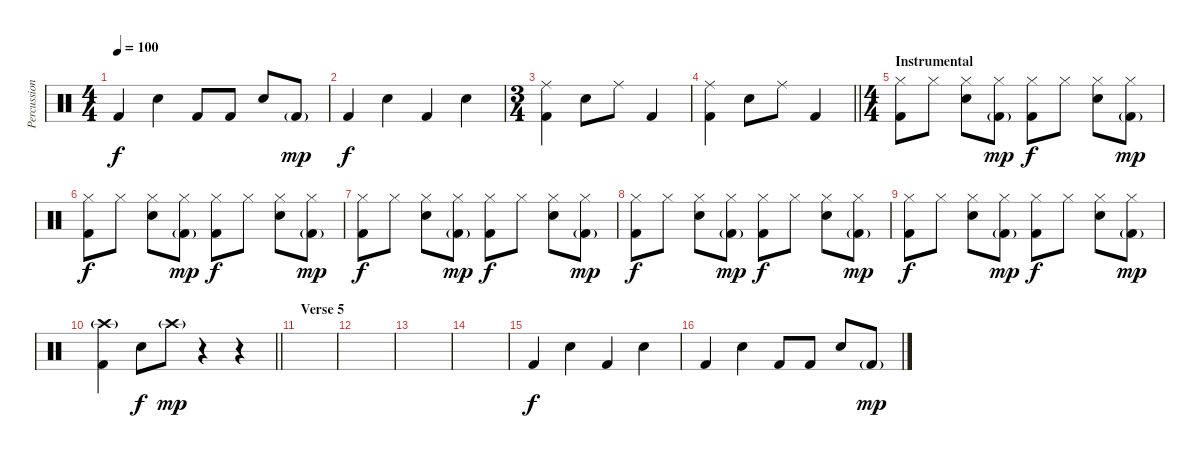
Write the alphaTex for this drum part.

\track ("Percussion" "Percussion") {instrument percussion}
\staff {score}
\articulation defaults
\ts (4 4)
\tempo 100
\clef neutral
\ks c "Kick (hit) 2".4{dy f} "Snare (hit) 2".4 "Kick (hit) 2".8 "Kick (hit) 2".8 "Snare (hit) 2".8 "Kick (hit) 2"{g}.8{dy mp}
|
"Kick (hit) 2".4{dy f} "Snare (hit) 2".4 "Kick (hit) 2".4 "Snare (hit) 2".4 |
\ts (3 4)
("Ride (middle)" "Kick (hit) 2").4 "Snare (hit) 2".8 "Ride (middle)".8 "Kick (hit) 2".4 |
\barLineRight lightlight
("Ride (middle)" "Kick (hit) 2").4 "Snare (hit) 2".8 "Ride (middle)".8 "Kick (hit) 2".4 |
\ts (4 4)
\section ("" "Instrumental")
("Hi-Hat (closed)" "Kick (hit) 2").8 "Hi-Hat (closed)".8 ("Hi-Hat (closed)" "Snare (hit) 2").8 ("Hi-Hat (closed)" "Kick (hit) 2"{g}).8{dy mp} ("Hi-Hat (closed)" "Kick (hit) 2").8{dy f} "Hi-Hat (closed)".8 ("Hi-Hat (closed)" "Snare (hit) 2").8 ("Hi-Hat (closed)" "Kick (hit) 2"{g}).8{dy mp} |
("Hi-Hat (closed)" "Kick (hit) 2").8{dy f} "Hi-Hat (closed)".8 ("Hi-Hat (closed)" "Snare (hit) 2").8 ("Hi-Hat (closed)" "Kick (hit) 2"{g}).8{dy mp} ("Hi-Hat (closed)" "Kick (hit) 2").8{dy f} "Hi-Hat (closed)".8 ("Hi-Hat (closed)" "Snare (hit) 2").8 ("Hi-Hat (closed)" "Kick (hit) 2"{g}).8{dy mp} |
("Hi-Hat (closed)" "Kick (hit) 2").8{dy f} "Hi-Hat (closed)".8 ("Hi-Hat (closed)" "Snare (hit) 2").8 ("Hi-Hat (closed)" "Kick (hit) 2"{g}).8{dy mp} ("Hi-Hat (closed)" "Kick (hit) 2").8{dy f} "Hi-Hat (closed)".8 ("Hi-Hat (closed)" "Snare (hit) 2").8 ("Hi-Hat (closed)" "Kick (hit) 2"{g}).8{dy mp} |
("Hi-Hat (closed)" "Kick (hit) 2").8{dy f} "Hi-Hat (closed)".8 ("Hi-Hat (closed)" "Snare (hit) 2").8 ("Hi-Hat (closed)" "Kick (hit) 2"{g}).8{dy mp} ("Hi-Hat (closed)" "Kick (hit) 2").8{dy f} "Hi-Hat (closed)".8 ("Hi-Hat (closed)" "Snare (hit) 2").8 ("Hi-Hat (closed)" "Kick (hit) 2"{g}).8{dy mp} |
("Hi-Hat (closed)" "Kick (hit) 2").8{dy f} "Hi-Hat (closed)".8 ("Hi-Hat (closed)" "Snare (hit) 2").8 ("Hi-Hat (closed)" "Kick (hit) 2"{g}).8{dy mp} ("Hi-Hat (closed)" "Kick (hit) 2").8{dy f} "Hi-Hat (closed)".8 ("Hi-Hat (closed)" "Snare (hit) 2").8 ("Hi-Hat (closed)" "Kick (hit) 2"{g}).8{dy mp} |
\barLineRight lightlight
("Crash high (hit)"{g} "Kick (hit) 2").4 "Snare (hit) 2".8{dy f} "Crash high (hit)"{g}.8{dy mp} r.4 r.4 |
\section ("" "Verse 5")
|
|
|
|
"Kick (hit) 2".4{dy f} "Snare (hit) 2".4 "Kick (hit) 2".4 "Snare (hit) 2".4 |
"Kick (hit) 2".4 "Snare (hit) 2".4 "Kick (hit) 2".8 "Kick (hit) 2".8 "Snare (hit) 2".8 "Kick (hit) 2"{g}.8{dy mp}
